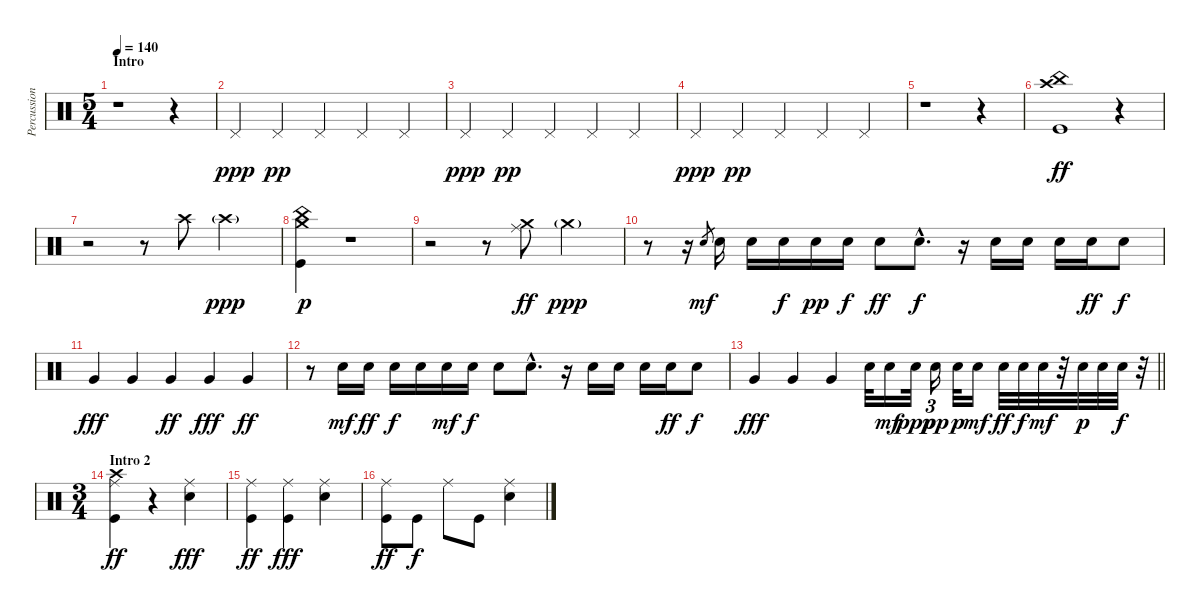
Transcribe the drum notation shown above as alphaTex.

\track ("Percussion" "Percussion") {instrument percussion}
\staff {score}
\articulation defaults
\ts (5 4)
\section ("" "Intro")
\tempo 140
\clef neutral
\ks c
r.1{dy ppp} r.4 |
"Pedal Hi-Hat (hit)".4 "Pedal Hi-Hat (hit)".4{dy pp} "Pedal Hi-Hat (hit)".4 "Pedal Hi-Hat (hit)".4 "Pedal Hi-Hat (hit)".4 |
"Pedal Hi-Hat (hit)".4{dy ppp} "Pedal Hi-Hat (hit)".4{dy pp} "Pedal Hi-Hat (hit)".4 "Pedal Hi-Hat (hit)".4 "Pedal Hi-Hat (hit)".4 |
"Pedal Hi-Hat (hit)".4{dy ppp} "Pedal Hi-Hat (hit)".4{dy pp} "Pedal Hi-Hat (hit)".4 "Pedal Hi-Hat (hit)".4 "Pedal Hi-Hat (hit)".4 |
r.1 r.4 |
("China (hit)" "Crash high (hit)" "Kick (hit)").1{dy ff} r.4 |
r.2 r.8 "Crash high (hit)".8 "Crash high (hit)"{g}.2{dy ppp} |
("Kick (hit)" "China (hit)" "Crash medium (hit)").4{dy p} r.1 |
r.2 r.8 ("Crash medium (hit)" "Ride (middle)").8{dy ff} "Crash medium (hit)"{g}.2{dy ppp} |
r.8 r.16 "Electric Snare (hit)".8{gr dy mf} "Electric Snare (hit)".16 "Electric Snare (hit)".16 "Electric Snare (hit)".16{dy f} "Electric Snare (hit)".16{dy pp} "Electric Snare (hit)".16{dy f} "Electric Snare (hit)".8{dy ff} "Electric Snare (hit)"{hac}.8{d dy f} r.16 "Electric Snare (hit)".16 "Electric Snare (hit)".16 "Electric Snare (hit)".16 "Electric Snare (hit)".16{dy ff} "Electric Snare (hit)".8{dy f} |
"Very Low Tom (hit)".4{dy fff} "Very Low Tom (hit)".4 "Very Low Tom (hit)".4{dy ff} "Very Low Tom (hit)".4{dy fff} "Very Low Tom (hit)".4{dy ff} |
r.8 "Electric Snare (hit)".16{dy mf} "Electric Snare (hit)".16{dy ff} "Electric Snare (hit)".16{dy f} "Electric Snare (hit)".16 "Electric Snare (hit)".16{dy mf} "Electric Snare (hit)".16{dy f} "Electric Snare (hit)".8 "Electric Snare (hit)"{hac}.8{d} r.16 "Electric Snare (hit)".16 "Electric Snare (hit)".16 "Electric Snare (hit)".16 "Electric Snare (hit)".16{dy ff} "Electric Snare (hit)".8{dy f} |
\barLineRight lightlight "Very Low Tom (hit)".4{dy fff} "Very Low Tom (hit)".4 "Very Low Tom (hit)".4 "Electric Snare (hit)".32 "Electric Snare (hit)".16{dy mf} "Electric Snare (hit)".32{dy ppp} "Electric Snare (hit)".16{tu (3 2) dy pp} "Electric Snare (hit)".32{dy p} "Electric Snare (hit)".16{dy mf} "Electric Snare (hit)".32{dy ff} "Electric Snare (hit)".32{dy f} "Electric Snare (hit)".32{dy mf}
r.32 "Electric Snare (hit)".32{dy p} "Electric Snare (hit)".32 "Electric Snare (hit)".32{dy f} r.32{tu (3 2)} |
\ts (3 4)
\section ("" "Intro 2")
("Crash high (hit)" "Ride (middle)" "Kick (hit)").4{dy ff} r.4 ("Ride (middle)" "Electric Snare (hit)").4{dy fff} |
("Kick (hit)" "Ride (middle)").4{dy ff} ("Kick (hit)" "Ride (middle)").4{dy fff} ("Ride (middle)" "Electric Snare (hit)").4 |
("Ride (middle)" "Kick (hit)").8{dy ff} "Kick (hit)".8{dy f} "Ride (middle)".8 "Kick (hit)".8 ("Ride (middle)" "Electric Snare (hit)").4
